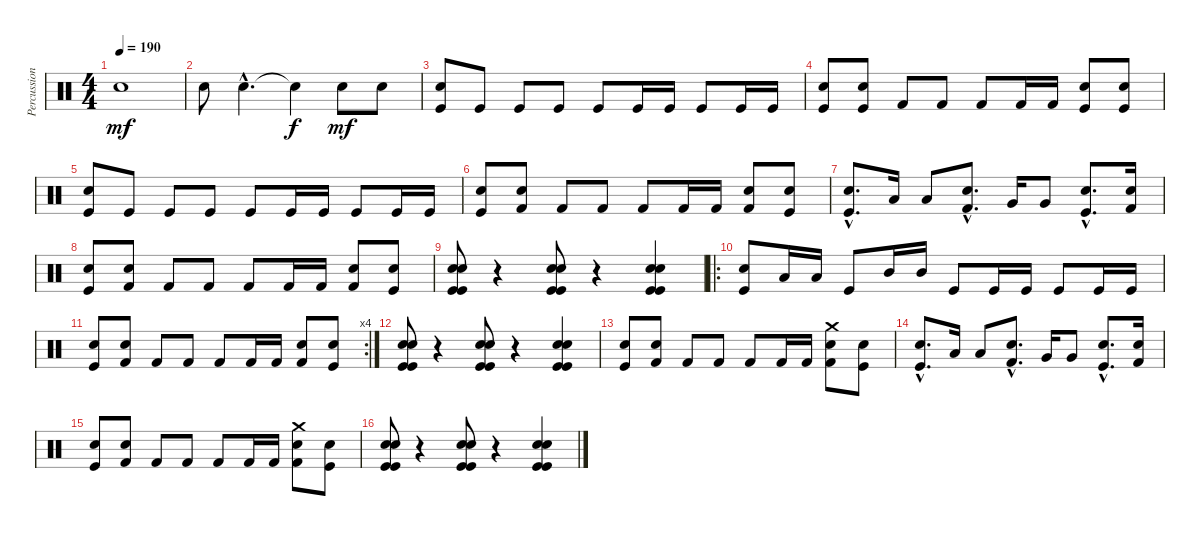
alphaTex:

\track ("Percussion" "Percussion") {instrument percussion}
\staff {score}
\articulation defaults
\ts (4 4)
\tempo 190
\clef neutral
\ks c "Electric Snare (hit)".1{dy mf}
|
"Snare (hit) 2".8 "Electric Snare (hit)"{hac}.4{d} "Snare (hit)"{t}.4{dy f} "Electric Snare (hit)".8{dy mf} "Snare (hit) 2".8 |
("Electric Snare (hit)" "Kick (hit)").8 "Kick (hit)".8 "Kick (hit)".8 "Kick (hit)".8 "Kick (hit)".8 "Kick (hit)".16 "Kick (hit)".16 "Kick (hit)".8 "Kick (hit)".16 "Kick (hit)".16 |
("Snare (hit) 2" "Kick (hit)").8 ("Electric Snare (hit)" "Kick (hit)").8 "Kick (hit) 2".8 "Kick (hit) 2".8 "Kick (hit) 2".8 "Kick (hit) 2".16 "Kick (hit) 2".16 ("Electric Snare (hit)" "Kick (hit)").8 ("Snare (hit) 2" "Kick (hit)").8 |
("Electric Snare (hit)" "Kick (hit)").8 "Kick (hit)".8 "Kick (hit)".8 "Kick (hit)".8 "Kick (hit)".8 "Kick (hit)".16 "Kick (hit)".16 "Kick (hit)".8 "Kick (hit)".16 "Kick (hit)".16 |
("Snare (hit) 2" "Kick (hit)").8 ("Electric Snare (hit)" "Kick (hit) 2").8 "Kick (hit) 2".8 "Kick (hit) 2".8 "Kick (hit) 2".8 "Kick (hit) 2".16 "Kick (hit) 2".16 ("Electric Snare (hit)" "Kick (hit) 2").8 ("Snare (hit) 2" "Kick (hit)").8 |
("Electric Snare (hit)"{hac} "Kick (hit)"{hac}).8{d} "Low Tom (hit)".16 "Low Tom (hit)".8 ("Electric Snare (hit)"{hac} "Kick (hit) 2"{hac}).8{d} "Very Low Tom (hit)".16 "Very Low Tom (hit)".8 ("Snare (hit) 2"{hac} "Kick (hit)"{hac}).8{d} ("Electric Snare (hit)" "Kick (hit) 2").16 |
("Snare (hit) 2" "Kick (hit)").8 ("Electric Snare (hit)" "Kick (hit) 2").8 "Kick (hit) 2".8 "Kick (hit) 2".8 "Kick (hit) 2".8 "Kick (hit) 2".16 "Kick (hit) 2".16 ("Electric Snare (hit)" "Kick (hit) 2").8 ("Snare (hit) 2" "Kick (hit)").8 |
("Electric Snare (hit)" "Electric Snare (hit)" "Kick (hit)" "Kick (hit)").8 r.4 ("Electric Snare (hit)" "Electric Snare (hit)" "Kick (hit)" "Kick (hit)").8 r.4 ("Electric Snare (hit)" "Electric Snare (hit)" "Kick (hit)" "Kick (hit)").4 |
\ro
("Electric Snare (hit)" "Kick (hit)").8 "Low Tom (hit)".16 "Low Tom (hit)".16 "Kick (hit)".8 "Mid Tom (hit)".16 "Mid Tom (hit)".16 "Kick (hit)".8 "Kick (hit)".16 "Kick (hit)".16 "Kick (hit)".8 "Kick (hit)".16 "Kick (hit)".16 |
\rc 4
("Snare (hit) 2" "Kick (hit)").8 ("Electric Snare (hit)" "Kick (hit) 2").8 "Kick (hit) 2".8 "Kick (hit) 2".8 "Kick (hit) 2".8 "Kick (hit) 2".16 "Kick (hit) 2".16 ("Electric Snare (hit)" "Kick (hit) 2").8 ("Snare (hit) 2" "Kick (hit)").8 |
("Electric Snare (hit)" "Electric Snare (hit)" "Kick (hit)" "Kick (hit)").8 r.4 ("Electric Snare (hit)" "Electric Snare (hit)" "Kick (hit)" "Kick (hit)").8 r.4 ("Electric Snare (hit)" "Electric Snare (hit)" "Kick (hit)" "Kick (hit)").4 |
("Snare (hit) 2" "Kick (hit)").8 ("Electric Snare (hit)" "Kick (hit) 2").8 "Kick (hit) 2".8 "Kick (hit) 2".8 "Kick (hit) 2".8 "Kick (hit) 2".16 "Kick (hit) 2".16 ("Electric Snare (hit)" "Kick (hit) 2" "Crash medium (hit)").8 ("Snare (hit) 2" "Kick (hit)").8 |
("Electric Snare (hit)"{hac} "Kick (hit)"{hac}).8{d} "Low Tom (hit)".16 "Low Tom (hit)".8 ("Electric Snare (hit)"{hac} "Kick (hit) 2"{hac}).8{d} "Very Low Tom (hit)".16 "Very Low Tom (hit)".8 ("Snare (hit) 2"{hac} "Kick (hit)"{hac}).8{d} ("Electric Snare (hit)" "Kick (hit) 2").16 |
("Snare (hit) 2" "Kick (hit)").8 ("Electric Snare (hit)" "Kick (hit) 2").8 "Kick (hit) 2".8 "Kick (hit) 2".8 "Kick (hit) 2".8 "Kick (hit) 2".16 "Kick (hit) 2".16 ("Electric Snare (hit)" "Kick (hit) 2" "Crash medium (hit)").8 ("Snare (hit) 2" "Kick (hit)").8 |
("Electric Snare (hit)" "Electric Snare (hit)" "Kick (hit)" "Kick (hit)").8 r.4 ("Electric Snare (hit)" "Electric Snare (hit)" "Kick (hit)" "Kick (hit)").8 r.4 ("Electric Snare (hit)" "Electric Snare (hit)" "Kick (hit)" "Kick (hit)").4
